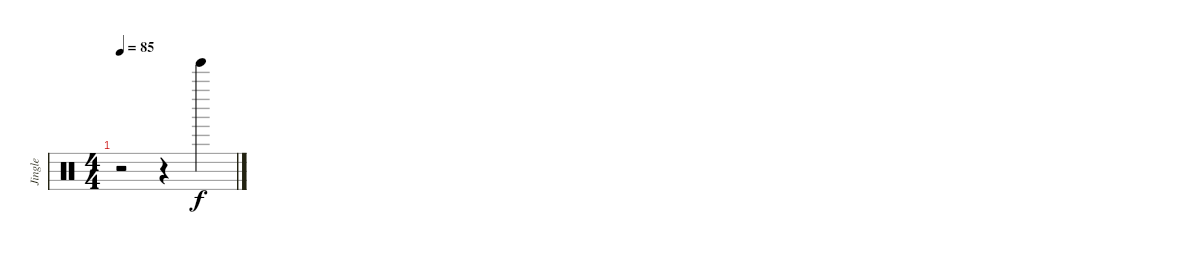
\track ("Jingle" "Jingle") {instrument percussion}
\staff {score}
\articulation defaults
\ts (4 4)
\tempo 85
\clef neutral
\ks c
r.2{dy f} r.4 "Tinkle Bell (hit)".4
